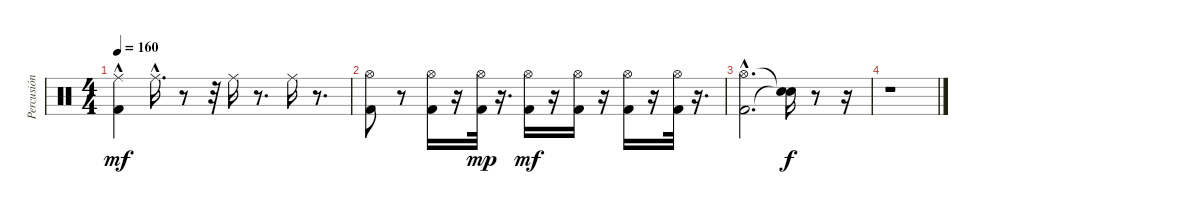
\track ("Percusión" "Percusión") {instrument percussion}
\staff {score}
\articulation defaults
\ts (4 4)
\tempo 160
\clef neutral
\ks c
("Kick (hit) 2"{hac} "Ride (middle)").4{dy mf} "Ride (middle)"{hac}.16{d} r.8 r.32 "Ride (middle)".16 r.8{d} "Ride (middle)".16 r.8{d} |
("Hi-Hat (open)" "Kick (hit) 2").8 r.8 ("Kick (hit) 2" "Hi-Hat (open)").16 r.16 ("Hi-Hat (open)" "Kick (hit) 2").32{dy mp} r.16{d} ("Kick (hit) 2" "Hi-Hat (open)").16{dy mf} r.16 ("Kick (hit) 2" "Hi-Hat (open)").16 r.16 ("Kick (hit) 2" "Hi-Hat (open)").16 r.16 ("Kick (hit) 2" "Hi-Hat (open)").32 r.16{d} |
("Kick (hit) 2"{hac} "Hi-Hat (open)"{hac}).2{d} ("Snare (hit)"{t} "Snare (hit)"{t}).16{dy f} r.8 r.16 |
r.1
